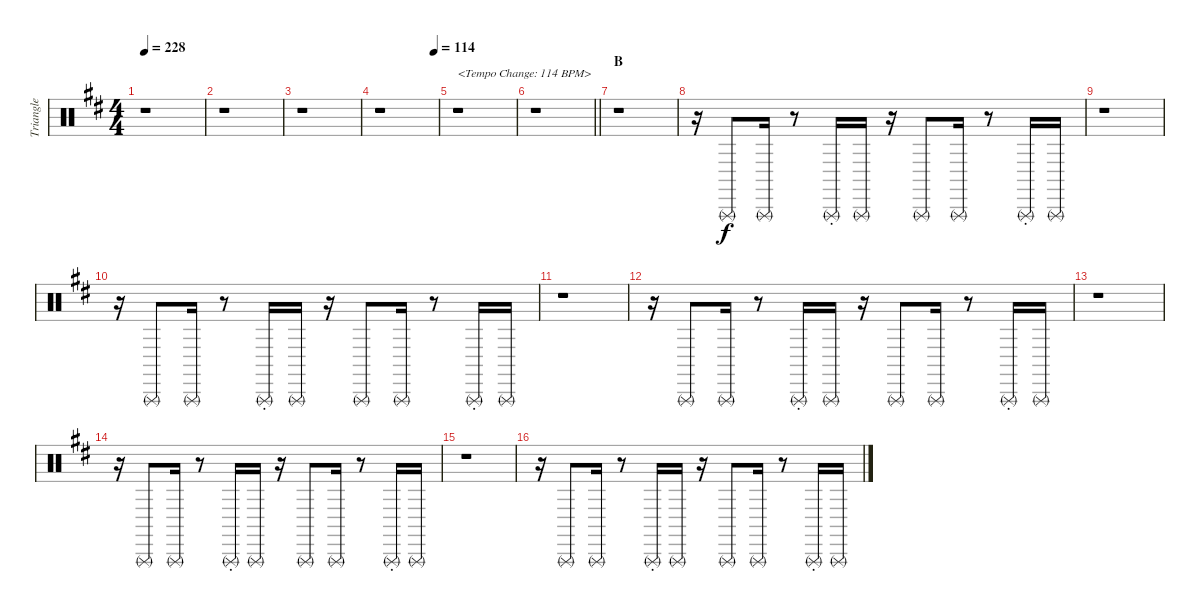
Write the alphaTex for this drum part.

\track ("Triangle" "Triangle") {instrument percussion}
\staff {score}
\articulation defaults
\ts (4 4)
\tempo 228
\clef neutral
\ks d
r.1{dy f} |
r.1 |
r.1 |
\tempo (114 0.9375)
r.1 |
r.1{txt "<Tempo Change: 114 BPM>"} |
\barLineRight lightlight
r.1 |
\section ("" "B")
r.1 |
r.16 "Triangle (rnute)".8 "Triangle (rnute)".16 r.8 "Triangle (rnute)"{st}.16 "Triangle (rnute)".16 r.16 "Triangle (rnute)".8 "Triangle (rnute)".16 r.8 "Triangle (rnute)"{st}.16 "Triangle (rnute)".16 |
r.1 |
r.16 "Triangle (rnute)".8 "Triangle (rnute)".16 r.8 "Triangle (rnute)"{st}.16 "Triangle (rnute)".16 r.16 "Triangle (rnute)".8 "Triangle (rnute)".16 r.8 "Triangle (rnute)"{st}.16 "Triangle (rnute)".16 |
r.1 |
r.16 "Triangle (rnute)".8 "Triangle (rnute)".16 r.8 "Triangle (rnute)"{st}.16 "Triangle (rnute)".16 r.16 "Triangle (rnute)".8 "Triangle (rnute)".16 r.8 "Triangle (rnute)"{st}.16 "Triangle (rnute)".16 |
r.1 |
r.16 "Triangle (rnute)".8 "Triangle (rnute)".16 r.8 "Triangle (rnute)"{st}.16 "Triangle (rnute)".16 r.16 "Triangle (rnute)".8 "Triangle (rnute)".16 r.8 "Triangle (rnute)"{st}.16 "Triangle (rnute)".16 |
r.1 |
r.16 "Triangle (rnute)".8 "Triangle (rnute)".16 r.8 "Triangle (rnute)"{st}.16 "Triangle (rnute)".16 r.16 "Triangle (rnute)".8 "Triangle (rnute)".16 r.8 "Triangle (rnute)"{st}.16 "Triangle (rnute)".16
